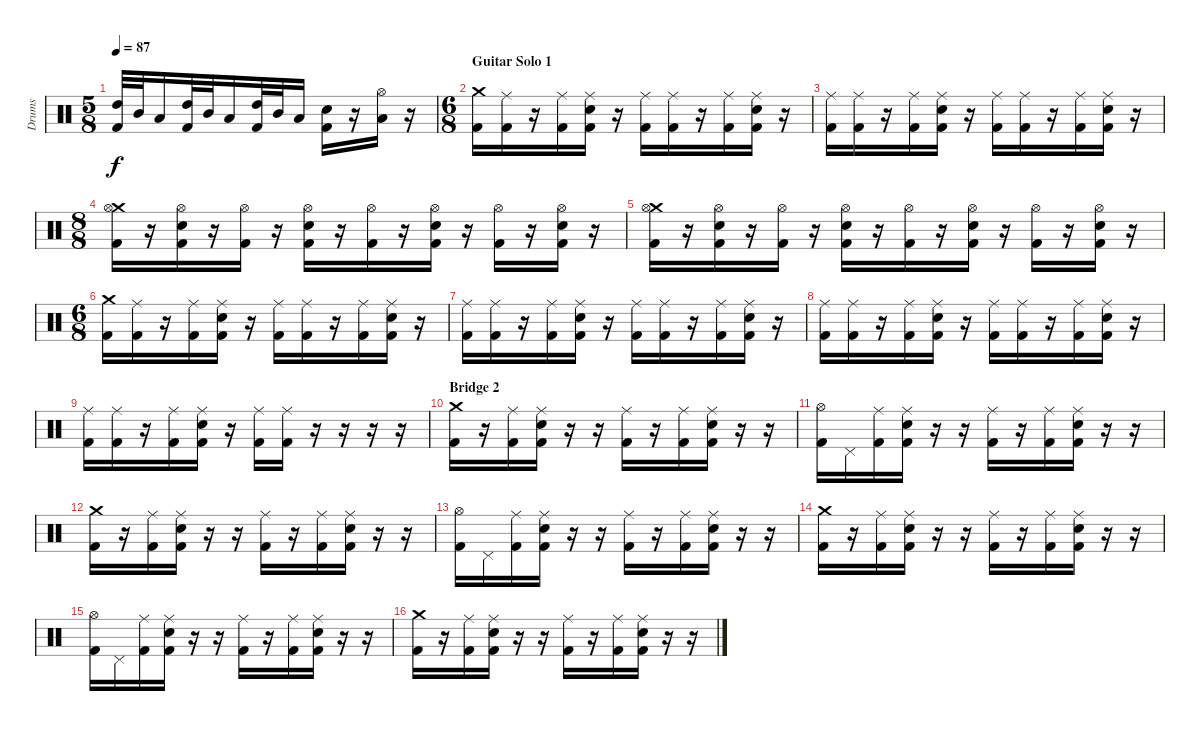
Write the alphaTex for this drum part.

\track ("Drums" "Drums") {instrument percussion}
\staff {score}
\articulation defaults
\ts (5 8)
\tempo 87
\clef neutral
\ks c
("High Tom (hit)" "Kick (hit) 2").32{dy f} "Mid Tom (hit)".32 "Low Tom (hit)".16 ("High Tom (hit)" "Kick (hit) 2").32 "Mid Tom (hit)".32 "Low Tom (hit)".16 ("High Tom (hit)" "Kick (hit) 2").32 "Mid Tom (hit)".32 "Low Tom (hit)".16 ("Snare (hit) 2" "Kick (hit) 2").16 r.16 ("Hi-Hat (open)" "Low Tom (hit)").16 r.16 |
\ts (6 8)
\section ("" "Guitar Solo 1")
("Crash medium (hit)" "Kick (hit) 2").16 ("Ride (middle)" "Kick (hit) 2").16 r.16 ("Ride (middle)" "Kick (hit) 2").16 ("Ride (middle)" "Snare (hit) 2" "Kick (hit) 2").16 r.16 ("Ride (middle)" "Kick (hit) 2").16 ("Ride (middle)" "Kick (hit) 2").16 r.16 ("Ride (middle)" "Kick (hit) 2").16 ("Ride (middle)" "Snare (hit) 2" "Kick (hit) 2").16 r.16 |
("Ride (middle)" "Kick (hit) 2").16 ("Ride (middle)" "Kick (hit) 2").16 r.16 ("Ride (middle)" "Kick (hit) 2").16 ("Ride (middle)" "Snare (hit) 2" "Kick (hit) 2").16 r.16 ("Ride (middle)" "Kick (hit) 2").16 ("Ride (middle)" "Kick (hit) 2").16 r.16 ("Ride (middle)" "Kick (hit) 2").16 ("Ride (middle)" "Snare (hit) 2" "Kick (hit) 2").16 r.16 |
\ts (8 8)
("Crash medium (hit)" "Hi-Hat (open)" "Kick (hit) 2").16 r.16 ("Hi-Hat (open)" "Snare (hit) 2" "Kick (hit) 2").16 r.16 ("Hi-Hat (open)" "Kick (hit) 2").16 r.16 ("Hi-Hat (open)" "Snare (hit) 2" "Kick (hit) 2").16 r.16 ("Hi-Hat (open)" "Kick (hit) 2").16 r.16 ("Hi-Hat (open)" "Snare (hit) 2" "Kick (hit) 2").16 r.16 ("Hi-Hat (open)" "Kick (hit) 2").16 r.16 ("Hi-Hat (open)" "Snare (hit) 2" "Kick (hit) 2").16 r.16 |
("Crash medium (hit)" "Hi-Hat (open)" "Kick (hit) 2").16 r.16 ("Hi-Hat (open)" "Snare (hit) 2" "Kick (hit) 2").16 r.16 ("Hi-Hat (open)" "Kick (hit) 2").16 r.16 ("Hi-Hat (open)" "Snare (hit) 2" "Kick (hit) 2").16 r.16 ("Hi-Hat (open)" "Kick (hit) 2").16 r.16 ("Hi-Hat (open)" "Snare (hit) 2" "Kick (hit) 2").16 r.16 ("Hi-Hat (open)" "Kick (hit) 2").16 r.16 ("Hi-Hat (open)" "Snare (hit) 2" "Kick (hit) 2").16 r.16 |
\ts (6 8)
("Crash medium (hit)" "Kick (hit) 2").16 ("Ride (middle)" "Kick (hit) 2").16 r.16 ("Ride (middle)" "Kick (hit) 2").16 ("Ride (middle)" "Snare (hit) 2" "Kick (hit) 2").16 r.16 ("Ride (middle)" "Kick (hit) 2").16 ("Ride (middle)" "Kick (hit) 2").16 r.16 ("Ride (middle)" "Kick (hit) 2").16 ("Ride (middle)" "Snare (hit) 2" "Kick (hit) 2").16 r.16 |
("Ride (middle)" "Kick (hit) 2").16 ("Ride (middle)" "Kick (hit) 2").16 r.16 ("Ride (middle)" "Kick (hit) 2").16 ("Ride (middle)" "Snare (hit) 2" "Kick (hit) 2").16 r.16 ("Ride (middle)" "Kick (hit) 2").16 ("Ride (middle)" "Kick (hit) 2").16 r.16 ("Ride (middle)" "Kick (hit) 2").16 ("Ride (middle)" "Snare (hit) 2" "Kick (hit) 2").16 r.16 |
("Ride (middle)" "Kick (hit) 2").16 ("Ride (middle)" "Kick (hit) 2").16 r.16 ("Ride (middle)" "Kick (hit) 2").16 ("Ride (middle)" "Snare (hit) 2" "Kick (hit) 2").16 r.16 ("Ride (middle)" "Kick (hit) 2").16 ("Ride (middle)" "Kick (hit) 2").16 r.16 ("Ride (middle)" "Kick (hit) 2").16 ("Ride (middle)" "Snare (hit) 2" "Kick (hit) 2").16 r.16 |
("Ride (middle)" "Kick (hit) 2").16 ("Ride (middle)" "Kick (hit) 2").16 r.16 ("Ride (middle)" "Kick (hit) 2").16 ("Ride (middle)" "Snare (hit) 2" "Kick (hit) 2").16 r.16 ("Ride (middle)" "Kick (hit) 2").16 ("Ride (middle)" "Kick (hit) 2").16 r.16 r.16 r.16 r.16 |
\section ("" "Bridge 2")
("Crash medium (hit)" "Kick (hit) 2").16 r.16 ("Ride (middle)" "Kick (hit) 2").16 ("Ride (middle)" "Snare (hit) 2" "Kick (hit) 2").16 r.16 r.16 ("Ride (middle)" "Kick (hit) 2").16 r.16 ("Ride (middle)" "Kick (hit) 2").16 ("Ride (middle)" "Snare (hit) 2" "Kick (hit) 2").16 r.16 r.16 |
("Hi-Hat (open)" "Kick (hit) 2").16 "Pedal Hi-Hat (hit)".16 ("Ride (middle)" "Kick (hit) 2").16 ("Ride (middle)" "Snare (hit) 2" "Kick (hit) 2").16 r.16 r.16 ("Ride (middle)" "Kick (hit) 2").16 r.16 ("Ride (middle)" "Kick (hit) 2").16 ("Ride (middle)" "Snare (hit) 2" "Kick (hit) 2").16 r.16 r.16 |
("Crash medium (hit)" "Kick (hit) 2").16 r.16 ("Ride (middle)" "Kick (hit) 2").16 ("Ride (middle)" "Snare (hit) 2" "Kick (hit) 2").16 r.16 r.16 ("Ride (middle)" "Kick (hit) 2").16 r.16 ("Ride (middle)" "Kick (hit) 2").16 ("Ride (middle)" "Snare (hit) 2" "Kick (hit) 2").16 r.16 r.16 |
("Hi-Hat (open)" "Kick (hit) 2").16 "Pedal Hi-Hat (hit)".16 ("Ride (middle)" "Kick (hit) 2").16 ("Ride (middle)" "Snare (hit) 2" "Kick (hit) 2").16 r.16 r.16 ("Ride (middle)" "Kick (hit) 2").16 r.16 ("Ride (middle)" "Kick (hit) 2").16 ("Ride (middle)" "Snare (hit) 2" "Kick (hit) 2").16 r.16 r.16 |
("Crash medium (hit)" "Kick (hit) 2").16 r.16 ("Ride (middle)" "Kick (hit) 2").16 ("Ride (middle)" "Snare (hit) 2" "Kick (hit) 2").16 r.16 r.16 ("Ride (middle)" "Kick (hit) 2").16 r.16 ("Ride (middle)" "Kick (hit) 2").16 ("Ride (middle)" "Snare (hit) 2" "Kick (hit) 2").16 r.16 r.16 |
("Hi-Hat (open)" "Kick (hit) 2").16 "Pedal Hi-Hat (hit)".16 ("Ride (middle)" "Kick (hit) 2").16 ("Ride (middle)" "Snare (hit) 2" "Kick (hit) 2").16 r.16 r.16 ("Ride (middle)" "Kick (hit) 2").16 r.16 ("Ride (middle)" "Kick (hit) 2").16 ("Ride (middle)" "Snare (hit) 2" "Kick (hit) 2").16 r.16 r.16 |
("Crash medium (hit)" "Kick (hit) 2").16 r.16 ("Ride (middle)" "Kick (hit) 2").16 ("Ride (middle)" "Snare (hit) 2" "Kick (hit) 2").16 r.16 r.16 ("Ride (middle)" "Kick (hit) 2").16 r.16 ("Ride (middle)" "Kick (hit) 2").16 ("Ride (middle)" "Snare (hit) 2" "Kick (hit) 2").16 r.16 r.16
